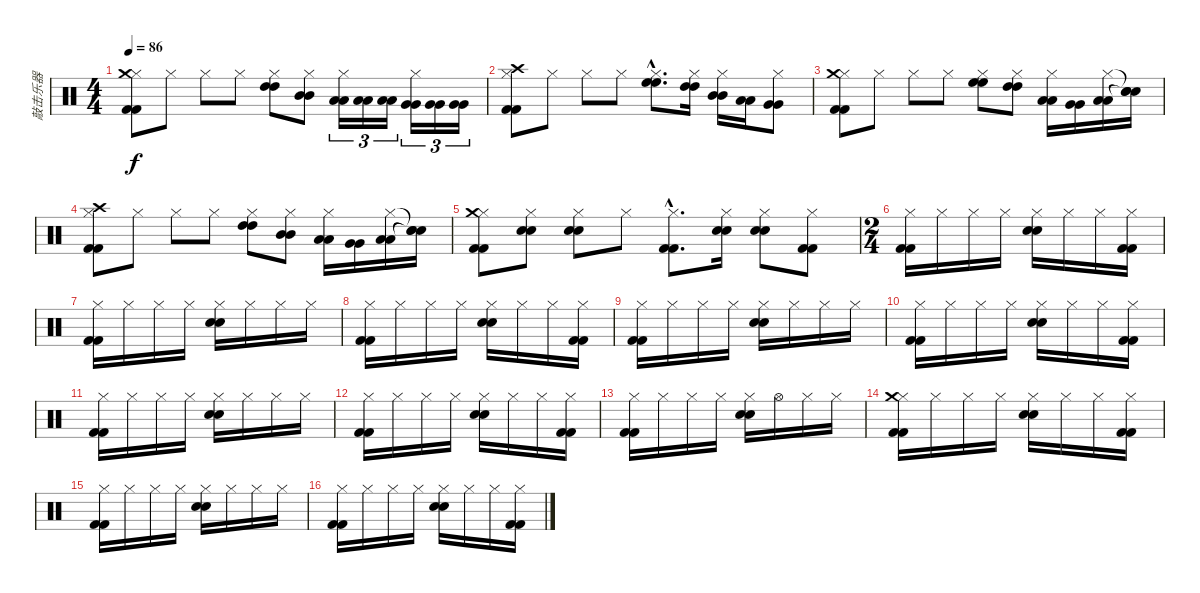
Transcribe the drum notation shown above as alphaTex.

\track ("敲击乐器" "敲击乐器") {instrument percussion}
\staff {score}
\articulation defaults
\ts (4 4)
\tempo 86
\clef neutral
\ks c
("Hi-Hat (closed)" "Crash medium (hit)" "Kick (hit) 2" "Kick (hit) 2").8{dy f} "Hi-Hat (closed)".8 "Hi-Hat (closed)".8 "Hi-Hat (closed)".8 ("Hi-Hat (closed)" "High Tom (hit)" "High Tom (hit)").8 ("Hi-Hat (closed)" "Mid Tom (hit)" "Mid Tom (hit)").8 ("Hi-Hat (closed)" "Low Tom (hit)" "Low Tom (hit)").16{tu (3 2)} ("Low Tom (hit)" "Low Tom (hit)").16{tu (3 2)} ("Low Tom (hit)" "Low Tom (hit)").16{tu (3 2)} ("Hi-Hat (closed)" "Very Low Tom (hit)" "Very Low Tom (hit)").16{tu (3 2)} ("Very Low Tom (hit)" "Very Low Tom (hit)").16{tu (3 2)} ("Very Low Tom (hit)" "Very Low Tom (hit)").16{tu (3 2)} |
("Hi-Hat (closed)" "Crash high (hit)" "Kick (hit) 2" "Kick (hit) 2").8 "Hi-Hat (closed)".8 "Hi-Hat (closed)".8 "Hi-Hat (closed)".8 ("Hi-Hat (closed)"{hac} "High Floor Tom (hit)"{hac} "High Floor Tom (hit)"{hac}).8{d} ("Hi-Hat (closed)" "High Tom (hit)" "High Tom (hit)").16 ("Hi-Hat (closed)" "Mid Tom (hit)" "Mid Tom (hit)").16 ("Low Tom (hit)" "Low Tom (hit)").16 ("Hi-Hat (closed)" "Very Low Tom (hit)" "Very Low Tom (hit)").8 |
("Hi-Hat (closed)" "Crash medium (hit)" "Kick (hit) 2" "Kick (hit) 2").8 "Hi-Hat (closed)".8 "Hi-Hat (closed)".8 "Hi-Hat (closed)".8 ("Hi-Hat (closed)" "High Floor Tom (hit)" "High Floor Tom (hit)").8 ("Hi-Hat (closed)" "High Tom (hit)" "High Tom (hit)").8 ("Hi-Hat (closed)" "Low Tom (hit)" "Low Tom (hit)").16 ("Very Low Tom (hit)" "Very Low Tom (hit)").16 ("Hi-Hat (closed)" "Low Floor Tom (hit)" "Low Floor Tom (hit)").16 ("Snare (hit)"{t} "Snare (hit)"{t} "Snare (hit)"{t}).16 |
("Hi-Hat (closed)" "Crash high (hit)" "Kick (hit) 2" "Kick (hit) 2").8 "Hi-Hat (closed)".8 "Hi-Hat (closed)".8 "Hi-Hat (closed)".8 ("Hi-Hat (closed)" "High Tom (hit)" "High Tom (hit)").8 ("Hi-Hat (closed)" "Mid Tom (hit)" "Mid Tom (hit)").8 ("Hi-Hat (closed)" "Low Tom (hit)" "Low Tom (hit)").16 ("Very Low Tom (hit)" "Very Low Tom (hit)").16 ("Hi-Hat (closed)" "Low Floor Tom (hit)" "Low Floor Tom (hit)").16 ("Snare (hit)"{t} "Snare (hit)"{t} "Snare (hit)"{t}).16 |
("Hi-Hat (closed)" "Crash medium (hit)" "Kick (hit) 2" "Kick (hit) 2").8 ("Hi-Hat (closed)" "Electric Snare (hit)" "Electric Snare (hit)").8 ("Hi-Hat (closed)" "Electric Snare (hit)" "Electric Snare (hit)").8 "Hi-Hat (closed)".8 ("Hi-Hat (closed)"{hac} "Kick (hit) 2"{hac} "Kick (hit) 2"{hac}).8{d} ("Hi-Hat (closed)" "Electric Snare (hit)" "Electric Snare (hit)").16 ("Hi-Hat (closed)" "Electric Snare (hit)" "Electric Snare (hit)").8 ("Hi-Hat (closed)" "Kick (hit) 2" "Kick (hit) 2").8 |
\ts (2 4)
("Hi-Hat (closed)" "Kick (hit) 2" "Kick (hit) 2").16 "Hi-Hat (closed)".16 "Hi-Hat (closed)".16 "Hi-Hat (closed)".16 ("Hi-Hat (closed)" "Electric Snare (hit)" "Electric Snare (hit)").16 "Hi-Hat (closed)".16 "Hi-Hat (closed)".16 ("Hi-Hat (closed)" "Kick (hit) 2" "Kick (hit) 2").16 |
("Hi-Hat (closed)" "Kick (hit) 2" "Kick (hit) 2").16 "Hi-Hat (closed)".16 "Hi-Hat (closed)".16 "Hi-Hat (closed)".16 ("Hi-Hat (closed)" "Electric Snare (hit)" "Electric Snare (hit)").16 "Hi-Hat (closed)".16 "Hi-Hat (closed)".16 "Hi-Hat (closed)".16 |
("Hi-Hat (closed)" "Kick (hit) 2" "Kick (hit) 2").16 "Hi-Hat (closed)".16 "Hi-Hat (closed)".16 "Hi-Hat (closed)".16 ("Hi-Hat (closed)" "Electric Snare (hit)" "Electric Snare (hit)").16 "Hi-Hat (closed)".16 "Hi-Hat (closed)".16 ("Hi-Hat (closed)" "Kick (hit) 2" "Kick (hit) 2").16 |
("Hi-Hat (closed)" "Kick (hit) 2" "Kick (hit) 2").16 "Hi-Hat (closed)".16 "Hi-Hat (closed)".16 "Hi-Hat (closed)".16 ("Hi-Hat (closed)" "Electric Snare (hit)" "Electric Snare (hit)").16 "Hi-Hat (closed)".16 "Hi-Hat (closed)".16 "Hi-Hat (closed)".16 |
("Hi-Hat (closed)" "Kick (hit) 2" "Kick (hit) 2").16 "Hi-Hat (closed)".16 "Hi-Hat (closed)".16 "Hi-Hat (closed)".16 ("Hi-Hat (closed)" "Electric Snare (hit)" "Electric Snare (hit)").16 "Hi-Hat (closed)".16 "Hi-Hat (closed)".16 ("Hi-Hat (closed)" "Kick (hit) 2" "Kick (hit) 2").16 |
("Hi-Hat (closed)" "Kick (hit) 2" "Kick (hit) 2").16 "Hi-Hat (closed)".16 "Hi-Hat (closed)".16 "Hi-Hat (closed)".16 ("Hi-Hat (closed)" "Electric Snare (hit)" "Electric Snare (hit)").16 "Hi-Hat (closed)".16 "Hi-Hat (closed)".16 "Hi-Hat (closed)".16 |
("Hi-Hat (closed)" "Kick (hit) 2" "Kick (hit) 2").16 "Hi-Hat (closed)".16 "Hi-Hat (closed)".16 "Hi-Hat (closed)".16 ("Hi-Hat (closed)" "Electric Snare (hit)" "Electric Snare (hit)").16 "Hi-Hat (closed)".16 "Hi-Hat (closed)".16 ("Hi-Hat (closed)" "Kick (hit) 2" "Kick (hit) 2").16 |
("Hi-Hat (closed)" "Kick (hit) 2" "Kick (hit) 2").16 "Hi-Hat (closed)".16 "Hi-Hat (closed)".16 "Hi-Hat (closed)".16 ("Hi-Hat (closed)" "Electric Snare (hit)" "Electric Snare (hit)").16 "Hi-Hat (open)".16 "Hi-Hat (closed)".16 "Hi-Hat (closed)".16 |
("Hi-Hat (closed)" "Crash medium (hit)" "Kick (hit) 2" "Kick (hit) 2").16 "Hi-Hat (closed)".16 "Hi-Hat (closed)".16 "Hi-Hat (closed)".16 ("Hi-Hat (closed)" "Electric Snare (hit)" "Electric Snare (hit)").16 "Hi-Hat (closed)".16 "Hi-Hat (closed)".16 ("Hi-Hat (closed)" "Kick (hit) 2" "Kick (hit) 2").16 |
("Hi-Hat (closed)" "Kick (hit) 2" "Kick (hit) 2").16 "Hi-Hat (closed)".16 "Hi-Hat (closed)".16 "Hi-Hat (closed)".16 ("Hi-Hat (closed)" "Electric Snare (hit)" "Electric Snare (hit)").16 "Hi-Hat (closed)".16 "Hi-Hat (closed)".16 "Hi-Hat (closed)".16 |
("Hi-Hat (closed)" "Kick (hit) 2" "Kick (hit) 2").16 "Hi-Hat (closed)".16 "Hi-Hat (closed)".16 "Hi-Hat (closed)".16 ("Hi-Hat (closed)" "Electric Snare (hit)" "Electric Snare (hit)").16 "Hi-Hat (closed)".16 "Hi-Hat (closed)".16 ("Hi-Hat (closed)" "Kick (hit) 2" "Kick (hit) 2").16
